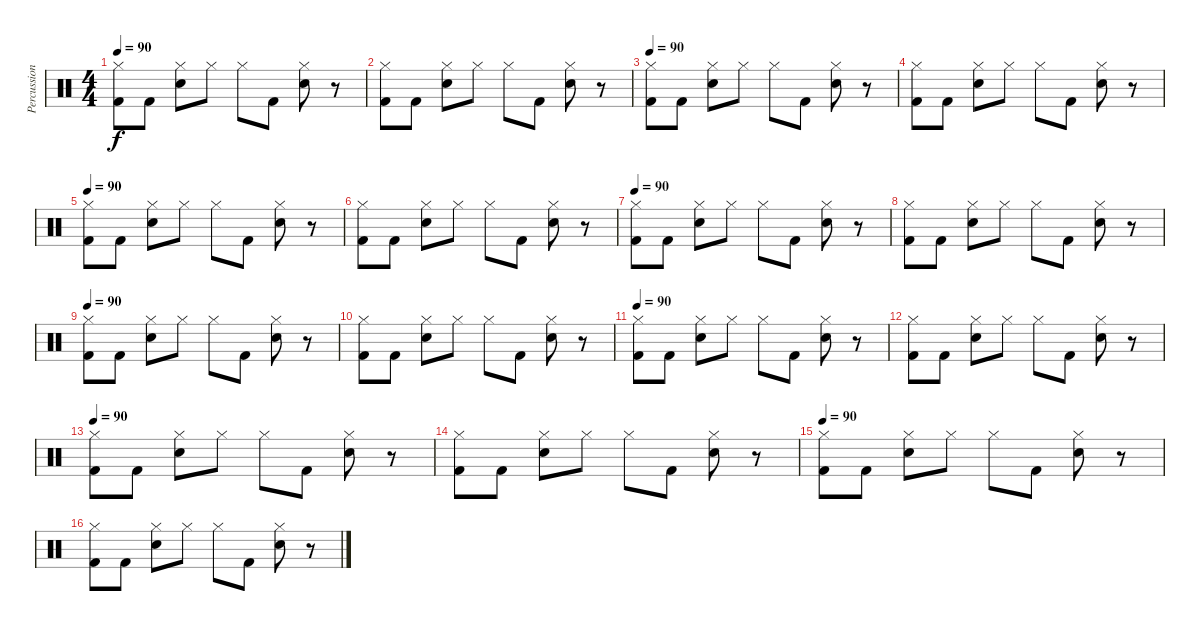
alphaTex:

\track ("Percussion" "Percussion") {instrument percussion}
\staff {score}
\articulation defaults
\ts (4 4)
\tempo 90
\clef neutral
\ks c
("Hi-Hat (closed)" "Kick (hit) 2").8{dy f} "Kick (hit) 2".8 ("Hi-Hat (closed)" "Electric Snare (hit)").8 "Hi-Hat (closed)".8 "Hi-Hat (closed)".8 "Kick (hit) 2".8 ("Hi-Hat (closed)" "Electric Snare (hit)").8 r.8 |
("Hi-Hat (closed)" "Kick (hit) 2").8 "Kick (hit) 2".8 ("Hi-Hat (closed)" "Electric Snare (hit)").8 "Hi-Hat (closed)".8 "Hi-Hat (closed)".8 "Kick (hit) 2".8 ("Hi-Hat (closed)" "Electric Snare (hit)").8 r.8 |
\tempo 90
("Hi-Hat (closed)" "Kick (hit) 2").8 "Kick (hit) 2".8 ("Hi-Hat (closed)" "Electric Snare (hit)").8 "Hi-Hat (closed)".8 "Hi-Hat (closed)".8 "Kick (hit) 2".8 ("Hi-Hat (closed)" "Electric Snare (hit)").8 r.8 |
("Hi-Hat (closed)" "Kick (hit) 2").8 "Kick (hit) 2".8 ("Hi-Hat (closed)" "Electric Snare (hit)").8 "Hi-Hat (closed)".8 "Hi-Hat (closed)".8 "Kick (hit) 2".8 ("Hi-Hat (closed)" "Electric Snare (hit)").8 r.8 |
\tempo 90
("Hi-Hat (closed)" "Kick (hit) 2").8 "Kick (hit) 2".8 ("Hi-Hat (closed)" "Electric Snare (hit)").8 "Hi-Hat (closed)".8 "Hi-Hat (closed)".8 "Kick (hit) 2".8 ("Hi-Hat (closed)" "Electric Snare (hit)").8 r.8 |
("Hi-Hat (closed)" "Kick (hit) 2").8 "Kick (hit) 2".8 ("Hi-Hat (closed)" "Electric Snare (hit)").8 "Hi-Hat (closed)".8 "Hi-Hat (closed)".8 "Kick (hit) 2".8 ("Hi-Hat (closed)" "Electric Snare (hit)").8 r.8 |
\tempo 90
("Hi-Hat (closed)" "Kick (hit) 2").8 "Kick (hit) 2".8 ("Hi-Hat (closed)" "Electric Snare (hit)").8 "Hi-Hat (closed)".8 "Hi-Hat (closed)".8 "Kick (hit) 2".8 ("Hi-Hat (closed)" "Electric Snare (hit)").8 r.8 |
("Hi-Hat (closed)" "Kick (hit) 2").8 "Kick (hit) 2".8 ("Hi-Hat (closed)" "Electric Snare (hit)").8 "Hi-Hat (closed)".8 "Hi-Hat (closed)".8 "Kick (hit) 2".8 ("Hi-Hat (closed)" "Electric Snare (hit)").8 r.8 |
\tempo 90
("Hi-Hat (closed)" "Kick (hit) 2").8 "Kick (hit) 2".8 ("Hi-Hat (closed)" "Electric Snare (hit)").8 "Hi-Hat (closed)".8 "Hi-Hat (closed)".8 "Kick (hit) 2".8 ("Hi-Hat (closed)" "Electric Snare (hit)").8 r.8 |
("Hi-Hat (closed)" "Kick (hit) 2").8 "Kick (hit) 2".8 ("Hi-Hat (closed)" "Electric Snare (hit)").8 "Hi-Hat (closed)".8 "Hi-Hat (closed)".8 "Kick (hit) 2".8 ("Hi-Hat (closed)" "Electric Snare (hit)").8 r.8 |
\tempo 90
("Hi-Hat (closed)" "Kick (hit) 2").8 "Kick (hit) 2".8 ("Hi-Hat (closed)" "Electric Snare (hit)").8 "Hi-Hat (closed)".8 "Hi-Hat (closed)".8 "Kick (hit) 2".8 ("Hi-Hat (closed)" "Electric Snare (hit)").8 r.8 |
("Hi-Hat (closed)" "Kick (hit) 2").8 "Kick (hit) 2".8 ("Hi-Hat (closed)" "Electric Snare (hit)").8 "Hi-Hat (closed)".8 "Hi-Hat (closed)".8 "Kick (hit) 2".8 ("Hi-Hat (closed)" "Electric Snare (hit)").8 r.8 |
\tempo 90
("Hi-Hat (closed)" "Kick (hit) 2").8 "Kick (hit) 2".8 ("Hi-Hat (closed)" "Electric Snare (hit)").8 "Hi-Hat (closed)".8 "Hi-Hat (closed)".8 "Kick (hit) 2".8 ("Hi-Hat (closed)" "Electric Snare (hit)").8 r.8 |
("Hi-Hat (closed)" "Kick (hit) 2").8 "Kick (hit) 2".8 ("Hi-Hat (closed)" "Electric Snare (hit)").8 "Hi-Hat (closed)".8 "Hi-Hat (closed)".8 "Kick (hit) 2".8 ("Hi-Hat (closed)" "Electric Snare (hit)").8 r.8 |
\tempo 90
("Hi-Hat (closed)" "Kick (hit) 2").8 "Kick (hit) 2".8 ("Hi-Hat (closed)" "Electric Snare (hit)").8 "Hi-Hat (closed)".8 "Hi-Hat (closed)".8 "Kick (hit) 2".8 ("Hi-Hat (closed)" "Electric Snare (hit)").8 r.8 |
("Hi-Hat (closed)" "Kick (hit) 2").8 "Kick (hit) 2".8 ("Hi-Hat (closed)" "Electric Snare (hit)").8 "Hi-Hat (closed)".8 "Hi-Hat (closed)".8 "Kick (hit) 2".8 ("Hi-Hat (closed)" "Electric Snare (hit)").8 r.8
